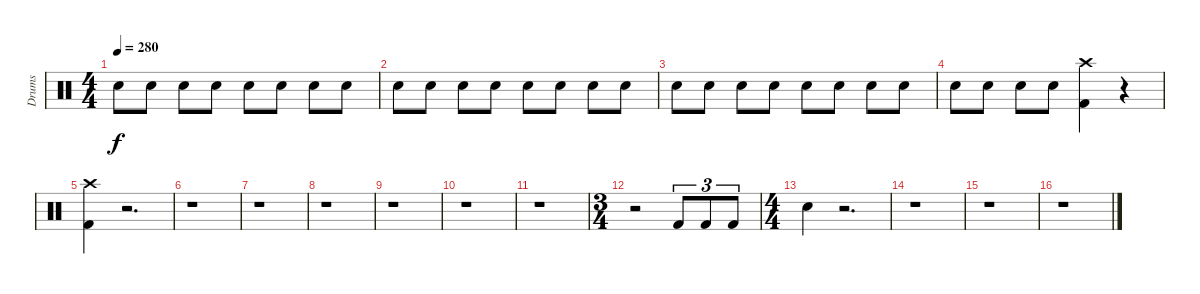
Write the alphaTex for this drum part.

\track ("Drums" "Drums") {instrument percussion}
\staff {score}
\articulation defaults
\ts (4 4)
\tempo 280
\tempo 240
\tempo 280
\clef neutral
\ks c "Snare (hit) 2".8{dy f} "Snare (hit) 2".8 "Snare (hit) 2".8 "Snare (hit) 2".8 "Snare (hit) 2".8 "Snare (hit) 2".8 "Snare (hit) 2".8 "Snare (hit) 2".8
|
"Snare (hit) 2".8 "Snare (hit) 2".8 "Snare (hit) 2".8 "Snare (hit) 2".8 "Snare (hit) 2".8 "Snare (hit) 2".8 "Snare (hit) 2".8 "Snare (hit) 2".8 |
"Snare (hit) 2".8 "Snare (hit) 2".8 "Snare (hit) 2".8 "Snare (hit) 2".8 "Snare (hit) 2".8 "Snare (hit) 2".8 "Snare (hit) 2".8 "Snare (hit) 2".8 |
"Snare (hit) 2".8 "Snare (hit) 2".8 "Snare (hit) 2".8 "Snare (hit) 2".8 ("Kick (hit) 2" "Crash high (hit)").4 r.4 |
("Kick (hit) 2" "Crash high (hit)").4 r.2{d} |
r.1 |
r.1 |
r.1 |
r.1 |
r.1 |
r.1 |
\ts (3 4)
r.2 "Kick (hit) 2".8{tu (3 2)} "Kick (hit) 2".8{tu (3 2)} "Kick (hit) 2".8{tu (3 2)} |
\ts (4 4)
"Snare (hit) 2".4 r.2{d} |
r.1 |
r.1 |
r.1
